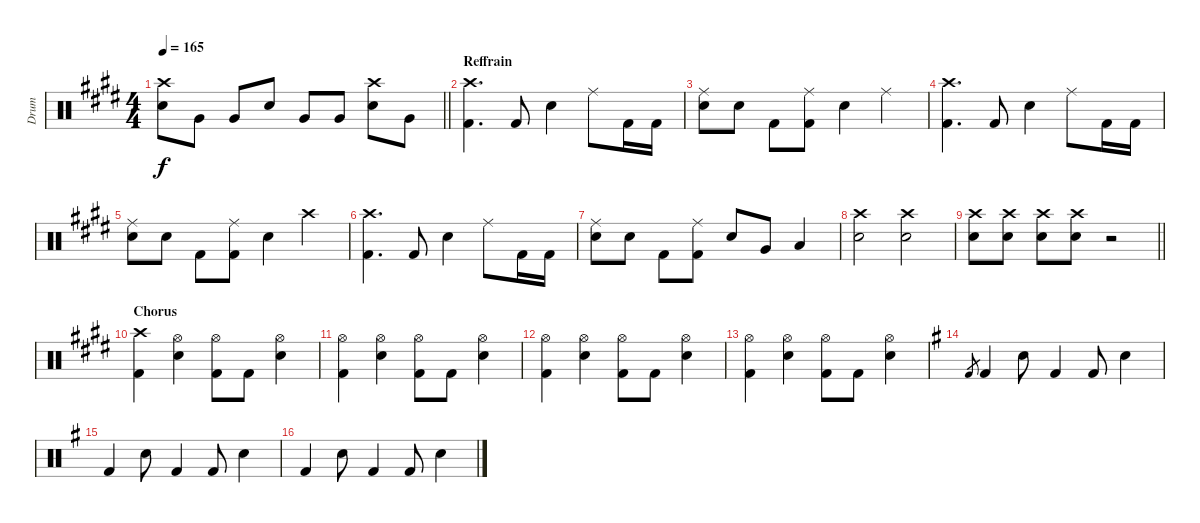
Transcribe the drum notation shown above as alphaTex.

\track ("Drum" "Drum") {instrument percussion}
\staff {score}
\articulation defaults
\ts (4 4)
\tempo 165
\clef neutral
\barLineRight lightlight
\ks e
("Crash high (hit)" "Electric Snare (hit)").8{dy f} "Very Low Tom (hit)".8 "Very Low Tom (hit)".8 "Electric Snare (hit)".8 "Very Low Tom (hit)".8 "Very Low Tom (hit)".8 ("Crash high (hit)" "Electric Snare (hit)").8 "Very Low Tom (hit)".8 |
\section ("" "Reffrain")
("Crash high (hit)" "Kick (hit) 2").4{d} "Kick (hit) 2".8 "Electric Snare (hit)".4 "Ride (middle)".8 "Kick (hit) 2".16 "Kick (hit) 2".16 |
("Ride (middle)" "Electric Snare (hit)").8 "Electric Snare (hit)".8 "Kick (hit) 2".8 ("Ride (middle)" "Kick (hit) 2").8 "Electric Snare (hit)".4 "Ride (middle)".4 |
("Crash high (hit)" "Kick (hit) 2").4{d} "Kick (hit) 2".8 "Electric Snare (hit)".4 "Ride (middle)".8 "Kick (hit) 2".16 "Kick (hit) 2".16 |
("Ride (middle)" "Electric Snare (hit)").8 "Electric Snare (hit)".8 "Kick (hit) 2".8 ("Ride (middle)" "Kick (hit) 2").8 "Electric Snare (hit)".4 "Crash high (hit)".4 |
("Crash high (hit)" "Kick (hit) 2").4{d} "Kick (hit) 2".8 "Electric Snare (hit)".4 "Ride (middle)".8 "Kick (hit) 2".16 "Kick (hit) 2".16 |
("Ride (middle)" "Electric Snare (hit)").8 "Electric Snare (hit)".8 "Kick (hit) 2".8 ("Ride (middle)" "Kick (hit) 2").8 "Electric Snare (hit)".8 "Very Low Tom (hit)".8 "Low Floor Tom (hit)".4 |
("Crash high (hit)" "Electric Snare (hit)").2 ("Crash high (hit)" "Electric Snare (hit)").2 |
\barLineRight lightlight
("Crash high (hit)" "Electric Snare (hit)").8 ("Crash high (hit)" "Electric Snare (hit)").8 ("Crash high (hit)" "Electric Snare (hit)").8 ("Crash high (hit)" "Electric Snare (hit)").8 r.2 |
\section ("" "Chorus")
("Crash high (hit)" "Kick (hit) 2").4 ("Hi-Hat (open)" "Electric Snare (hit)").4 ("Hi-Hat (open)" "Kick (hit) 2").8 "Kick (hit) 2".8 ("Hi-Hat (open)" "Electric Snare (hit)").4 |
("Hi-Hat (open)" "Kick (hit) 2").4 ("Hi-Hat (open)" "Electric Snare (hit)").4 ("Hi-Hat (open)" "Kick (hit) 2").8 "Kick (hit) 2".8 ("Hi-Hat (open)" "Electric Snare (hit)").4 |
("Hi-Hat (open)" "Kick (hit) 2").4 ("Hi-Hat (open)" "Electric Snare (hit)").4 ("Hi-Hat (open)" "Kick (hit) 2").8 "Kick (hit) 2".8 ("Hi-Hat (open)" "Electric Snare (hit)").4 |
("Hi-Hat (open)" "Kick (hit) 2").4 ("Hi-Hat (open)" "Electric Snare (hit)").4 ("Hi-Hat (open)" "Kick (hit) 2").8 "Kick (hit) 2".8 ("Hi-Hat (open)" "Electric Snare (hit)").4 |
\ks g "Kick (hit) 2".8{gr} "Kick (hit) 2".4 "Electric Snare (hit)".8 "Kick (hit) 2".4 "Kick (hit) 2".8 "Electric Snare (hit)".4
|
"Kick (hit) 2".4 "Electric Snare (hit)".8 "Kick (hit) 2".4 "Kick (hit) 2".8 "Electric Snare (hit)".4 |
"Kick (hit) 2".4 "Electric Snare (hit)".8 "Kick (hit) 2".4 "Kick (hit) 2".8 "Electric Snare (hit)".4
